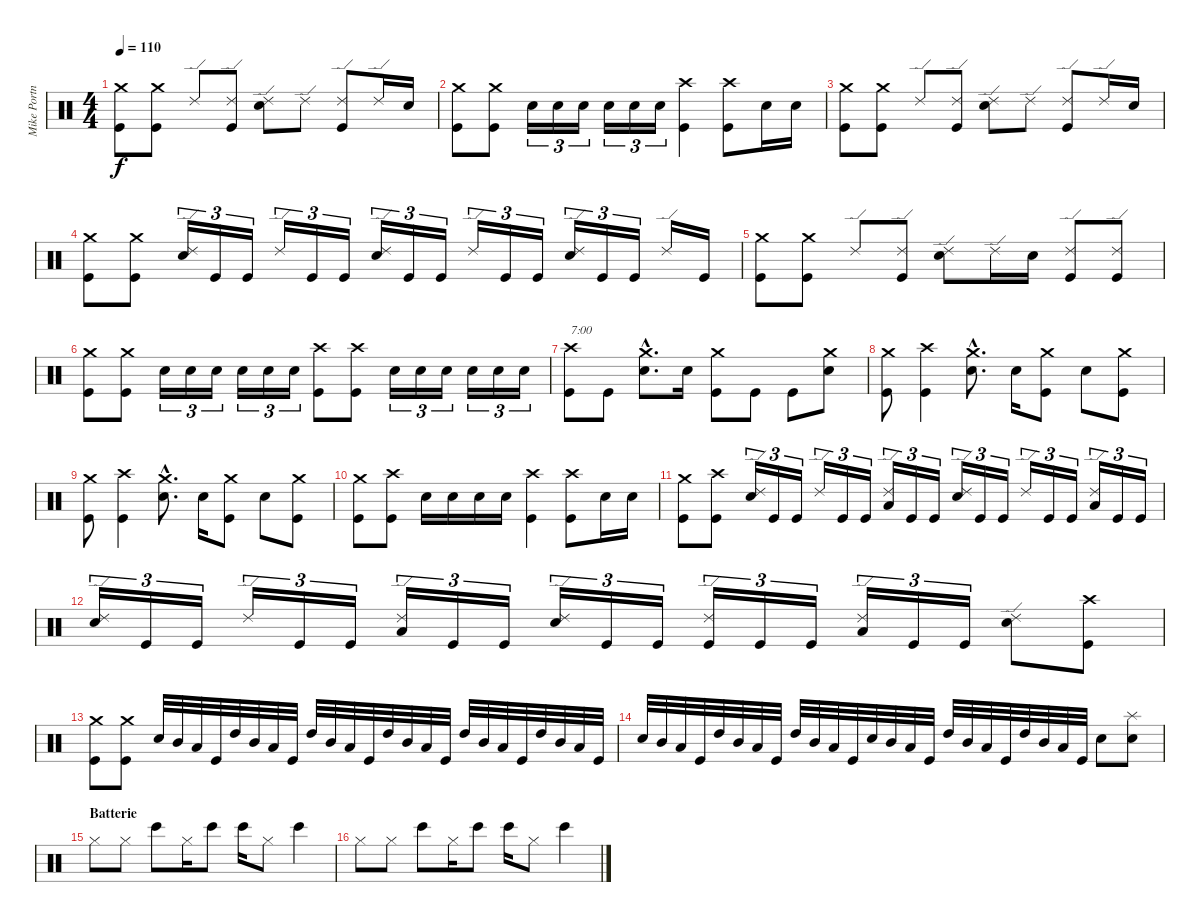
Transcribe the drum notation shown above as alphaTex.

\track ("Mike Portnoy" "Mike Portn") {instrument percussion}
\staff {score}
\articulation defaults
\ts (4 4)
\tempo 110
\clef neutral
\ks c
("Crash medium (hit)" "Kick (hit)").8{dy f} ("Crash medium (hit)" "Kick (hit)").8 "Ride (edge) 2".8 ("Ride (edge) 2" "Kick (hit)").8 ("Ride (edge) 2" "Snare (hit) 2").8 "Ride (edge) 2".8 ("Ride (edge) 2" "Kick (hit)").8 "Ride (edge) 2".16 "Snare (hit) 2".16 |
("Crash medium (hit)" "Kick (hit)").8 ("Crash medium (hit)" "Kick (hit)").8 "Snare (hit) 2".16{tu (3 2)} "Snare (hit) 2".16{tu (3 2)} "Snare (hit) 2".16{tu (3 2)} "Snare (hit) 2".16{tu (3 2)} "Snare (hit) 2".16{tu (3 2)} "Snare (hit) 2".16{tu (3 2)} ("Crash high (hit)" "Kick (hit)").4 ("Crash high (hit)" "Kick (hit)").8 "Snare (hit) 2".16 "Snare (hit) 2".16 |
("Crash medium (hit)" "Kick (hit)").8 ("Crash medium (hit)" "Kick (hit)").8 "Ride (edge) 2".8 ("Ride (edge) 2" "Kick (hit)").8 ("Ride (edge) 2" "Snare (hit) 2").8 "Ride (edge) 2".8 ("Ride (edge) 2" "Kick (hit)").8 "Ride (edge) 2".16 "Snare (hit) 2".16 |
("Crash medium (hit)" "Kick (hit)").8 ("Crash medium (hit)" "Kick (hit)").8 ("Ride (edge) 2" "Snare (hit) 2").16{tu (3 2)} "Kick (hit)".16{tu (3 2)} "Kick (hit)".16{tu (3 2)} "Ride (edge) 2".16{tu (3 2)} "Kick (hit)".16{tu (3 2)} "Kick (hit)".16{tu (3 2)} ("Ride (edge) 2" "Snare (hit) 2").16{tu (3 2)} "Kick (hit)".16{tu (3 2)} "Kick (hit)".16{tu (3 2)} "Ride (edge) 2".16{tu (3 2)} "Kick (hit)".16{tu (3 2)} "Kick (hit)".16{tu (3 2)} ("Ride (edge) 2" "Snare (hit) 2").16{tu (3 2)} "Kick (hit)".16{tu (3 2)} "Kick (hit)".16{tu (3 2)} "Ride (edge) 2".16 "Kick (hit)".16 |
("Crash medium (hit)" "Kick (hit)").8 ("Crash medium (hit)" "Kick (hit)").8 "Ride (edge) 2".8 ("Ride (edge) 2" "Kick (hit)").8 ("Ride (edge) 2" "Snare (hit) 2").8 "Ride (edge) 2".16 "Snare (hit) 2".16 ("Ride (edge) 2" "Kick (hit)").8 ("Ride (edge) 2" "Kick (hit)").8 |
("Crash medium (hit)" "Kick (hit)").8 ("Crash medium (hit)" "Kick (hit)").8 "Snare (hit) 2".16{tu (3 2)} "Snare (hit) 2".16{tu (3 2)} "Snare (hit) 2".16{tu (3 2)} "Snare (hit) 2".16{tu (3 2)} "Snare (hit) 2".16{tu (3 2)} "Snare (hit) 2".16{tu (3 2)} ("Crash high (hit)" "Kick (hit)").8 ("Crash high (hit)" "Kick (hit)").8 "Snare (hit) 2".16{tu (3 2)} "Snare (hit) 2".16{tu (3 2)} "Snare (hit) 2".16{tu (3 2)} "Snare (hit) 2".16{tu (3 2)} "Snare (hit) 2".16{tu (3 2)} "Snare (hit) 2".16{tu (3 2)} |
("Crash high (hit)" "Kick (hit)").8{txt "7:00"} "Kick (hit)".8 ("Crash medium (hit)"{hac} "Snare (hit) 2"{hac}).8{d} "Snare (hit) 2".16 ("Crash medium (hit)" "Kick (hit)").8 "Kick (hit)".8 "Kick (hit)".8 ("Crash medium (hit)" "Snare (hit) 2").8 |
("Crash medium (hit)" "Kick (hit)").8 ("Crash high (hit)" "Kick (hit)").4 ("Crash medium (hit)"{hac} "Snare (hit) 2"{hac}).8{d} "Snare (hit) 2".16 ("Crash medium (hit)" "Kick (hit)").8 "Snare (hit) 2".8 ("Crash medium (hit)" "Kick (hit)").8 |
("Crash medium (hit)" "Kick (hit)").8 ("Crash high (hit)" "Kick (hit)").4 ("Crash medium (hit)"{hac} "Snare (hit) 2"{hac}).8{d} "Snare (hit) 2".16 ("Crash medium (hit)" "Kick (hit)").8 "Snare (hit) 2".8 ("Crash medium (hit)" "Kick (hit)").8 |
("Crash medium (hit)" "Kick (hit)").8 ("Crash high (hit)" "Kick (hit)").8 "Snare (hit) 2".16 "Snare (hit) 2".16 "Snare (hit) 2".16 "Snare (hit) 2".16 ("Crash high (hit)" "Kick (hit)").4 ("Crash high (hit)" "Kick (hit)").8 "Snare (hit) 2".16 "Snare (hit) 2".16 |
("Crash medium (hit)" "Kick (hit)").8 ("Crash high (hit)" "Kick (hit)").8 ("Ride (edge) 2" "Snare (hit) 2").16{tu (3 2)} "Kick (hit)".16{tu (3 2)} "Kick (hit)".16{tu (3 2)} "Ride (edge) 2".16{tu (3 2)} "Kick (hit)".16{tu (3 2)} "Kick (hit)".16{tu (3 2)} ("Ride (edge) 2" "Low Tom (hit)").16{tu (3 2)} "Kick (hit)".16{tu (3 2)} "Kick (hit)".16{tu (3 2)} ("Ride (edge) 2" "Snare (hit) 2").16{tu (3 2)} "Kick (hit)".16{tu (3 2)} "Kick (hit)".16{tu (3 2)} "Ride (edge) 2".16{tu (3 2)} "Kick (hit)".16{tu (3 2)} "Kick (hit)".16{tu (3 2)} ("Ride (edge) 2" "Low Tom (hit)").16{tu (3 2)} "Kick (hit)".16{tu (3 2)} "Kick (hit)".16{tu (3 2)} |
("Ride (edge) 2" "Snare (hit) 2").16{tu (3 2)} "Kick (hit)".16{tu (3 2)} "Kick (hit)".16{tu (3 2)} "Ride (edge) 2".16{tu (3 2)} "Kick (hit)".16{tu (3 2)} "Kick (hit)".16{tu (3 2)} ("Ride (edge) 2" "Low Tom (hit)").16{tu (3 2)} "Kick (hit)".16{tu (3 2)} "Kick (hit)".16{tu (3 2)} ("Ride (edge) 2" "Snare (hit) 2").16{tu (3 2)} "Kick (hit)".16{tu (3 2)} "Kick (hit)".16{tu (3 2)} ("Ride (edge) 2" "Kick (hit)").16{tu (3 2)} "Kick (hit)".16{tu (3 2)} "Kick (hit)".16{tu (3 2)} ("Ride (edge) 2" "Low Tom (hit)").16{tu (3 2)} "Kick (hit)".16{tu (3 2)} "Kick (hit)".16{tu (3 2)} ("Ride (edge) 2" "Snare (hit) 2").8 ("Crash high (hit)" "Kick (hit)").8 |
("Crash medium (hit)" "Kick (hit)").8 ("Crash medium (hit)" "Kick (hit)").8 "Snare (hit) 2".32 "Mid Tom (hit)".32 "Low Tom (hit)".32 "Kick (hit)".32 "High Tom (hit)".32 "Mid Tom (hit)".32 "Low Tom (hit)".32 "Kick (hit)".32 "High Tom (hit)".32 "Mid Tom (hit)".32 "Low Tom (hit)".32 "Kick (hit)".32 "High Tom (hit)".32 "Mid Tom (hit)".32 "Low Tom (hit)".32 "Kick (hit)".32 "High Tom (hit)".32 "Mid Tom (hit)".32 "Low Tom (hit)".32 "Kick (hit)".32 "High Tom (hit)".32 "Mid Tom (hit)".32 "Low Tom (hit)".32 "Kick (hit)".32 |
"Snare (hit) 2".32 "Mid Tom (hit)".32 "Low Tom (hit)".32 "Kick (hit)".32 "High Tom (hit)".32 "Mid Tom (hit)".32 "Low Tom (hit)".32 "Kick (hit)".32 "High Tom (hit)".32 "Mid Tom (hit)".32 "Low Tom (hit)".32 "Kick (hit)".32 "Snare (hit) 2".32 "Mid Tom (hit)".32 "Low Tom (hit)".32 "Kick (hit)".32 "High Tom (hit)".32 "Mid Tom (hit)".32 "Low Tom (hit)".32 "Kick (hit)".32 "High Tom (hit)".32 "Mid Tom (hit)".32 "Low Tom (hit)".32 "Kick (hit)".32 "Snare (hit) 2".8 ("Splash (hit)" "Snare (hit) 2").8 |
\section ("" "Batterie")
"Hi-Hat (closed)".8 "Hi-Hat (closed)".8 "Bongo High (hit)".8 "Hi-Hat (closed)".16 "Bongo High (hit)".8 "Bongo High (hit)".16 "Hi-Hat (closed)".8 "Bongo High (hit)".4 |
"Hi-Hat (closed)".8 "Hi-Hat (closed)".8 "Bongo High (hit)".8 "Hi-Hat (closed)".16 "Bongo High (hit)".8 "Bongo High (hit)".16 "Hi-Hat (closed)".8 "Bongo High (hit)".4
